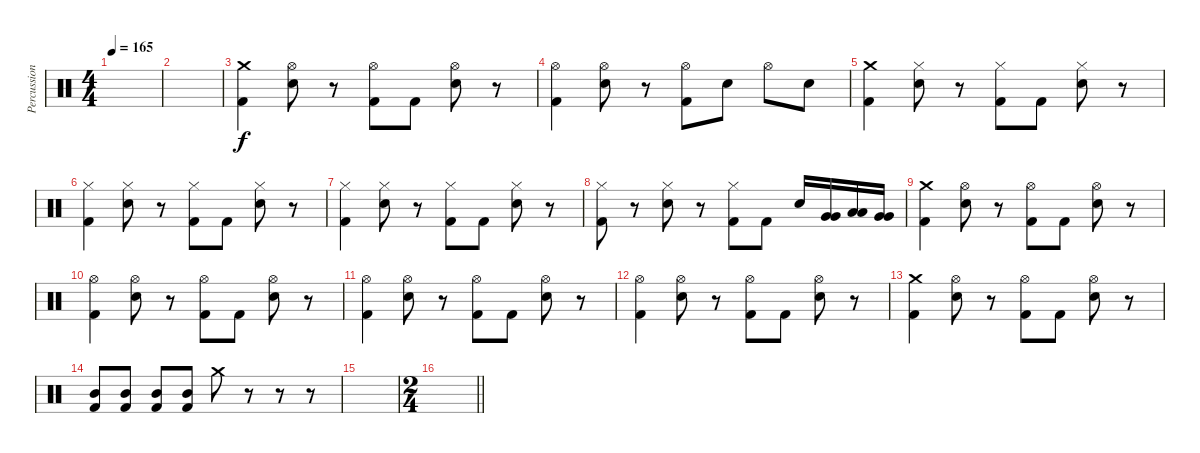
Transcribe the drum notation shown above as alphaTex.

\track ("Percussion" "Percussion") {instrument percussion}
\staff {score}
\articulation defaults
\ts (4 4)
\tempo 165
\clef neutral
\ks c
|
|
("Crash medium (hit)" "Kick (hit) 2").4 ("Hi-Hat (open)" "Electric Snare (hit)").8 r.8 ("Hi-Hat (open)" "Kick (hit) 2").8 "Kick (hit) 2".8 ("Hi-Hat (open)" "Electric Snare (hit)").8 r.8 |
("Hi-Hat (open)" "Kick (hit) 2").4 ("Hi-Hat (open)" "Electric Snare (hit)").8 r.8 ("Hi-Hat (open)" "Kick (hit) 2").8 "Electric Snare (hit)".8 "Hi-Hat (open)".8 "Electric Snare (hit)".8 |
("Crash medium (hit)" "Kick (hit) 2").4 ("Hi-Hat (closed)" "Electric Snare (hit)").8 r.8 ("Hi-Hat (closed)" "Kick (hit) 2").8 "Kick (hit) 2".8 ("Hi-Hat (closed)" "Electric Snare (hit)").8 r.8 |
("Hi-Hat (closed)" "Kick (hit) 2").4 ("Hi-Hat (closed)" "Electric Snare (hit)").8 r.8 ("Hi-Hat (closed)" "Kick (hit) 2").8 "Kick (hit) 2".8 ("Hi-Hat (closed)" "Electric Snare (hit)").8 r.8 |
("Hi-Hat (closed)" "Kick (hit) 2").4 ("Hi-Hat (closed)" "Electric Snare (hit)").8 r.8 ("Hi-Hat (closed)" "Kick (hit) 2").8 "Kick (hit) 2".8 ("Hi-Hat (closed)" "Electric Snare (hit)").8 r.8 |
("Hi-Hat (closed)" "Kick (hit) 2").8 r.8 ("Hi-Hat (closed)" "Electric Snare (hit)").8 r.8 ("Hi-Hat (closed)" "Kick (hit) 2").8 "Kick (hit) 2".8 "Electric Snare (hit)".16 ("Very Low Tom (hit)" "Very Low Tom (hit)").16 ("Low Tom (hit)" "Low Tom (hit)").16 ("Very Low Tom (hit)" "Very Low Tom (hit)").16 |
("Crash medium (hit)" "Kick (hit) 2").4 ("Hi-Hat (open)" "Electric Snare (hit)").8 r.8 ("Hi-Hat (open)" "Kick (hit) 2").8 "Kick (hit) 2".8 ("Hi-Hat (open)" "Electric Snare (hit)").8 r.8 |
("Hi-Hat (open)" "Kick (hit) 2").4 ("Hi-Hat (open)" "Electric Snare (hit)").8 r.8 ("Hi-Hat (open)" "Kick (hit) 2").8 "Kick (hit) 2".8 ("Hi-Hat (open)" "Electric Snare (hit)").8 r.8 |
("Hi-Hat (open)" "Kick (hit) 2").4 ("Hi-Hat (open)" "Electric Snare (hit)").8 r.8 ("Hi-Hat (open)" "Kick (hit) 2").8 "Kick (hit) 2".8 ("Hi-Hat (open)" "Electric Snare (hit)").8 r.8 |
("Hi-Hat (open)" "Kick (hit) 2").4 ("Hi-Hat (open)" "Electric Snare (hit)").8 r.8 ("Hi-Hat (open)" "Kick (hit) 2").8 "Kick (hit) 2".8 ("Hi-Hat (open)" "Electric Snare (hit)").8 r.8 |
("Crash medium (hit)" "Kick (hit) 2").4 ("Hi-Hat (open)" "Electric Snare (hit)").8 r.8 ("Hi-Hat (open)" "Kick (hit) 2").8 "Kick (hit) 2".8 ("Hi-Hat (open)" "Electric Snare (hit)").8 r.8 |
("Mid Tom (hit)" "Kick (hit) 2").8 ("Mid Tom (hit)" "Kick (hit) 2").8 ("Mid Tom (hit)" "Kick (hit) 2").8 ("Mid Tom (hit)" "Kick (hit) 2").8 "Crash medium (hit)".8 r.8 r.8 r.8 |
|
\ts (2 4)
\barLineRight lightlight
